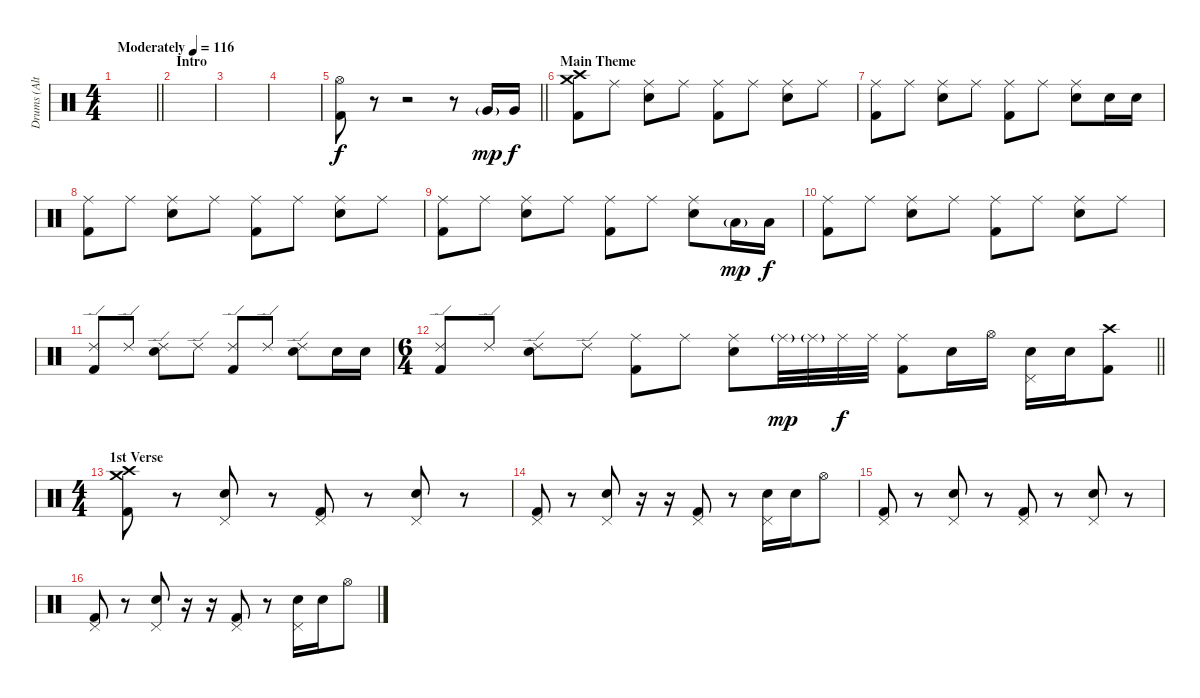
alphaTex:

\track ("Drums (Alternate - NOT ON MASTER)" "Drums (Alt") {mute instrument percussion}
\staff {score}
\articulation defaults
\ts (4 4)
\tempo (116 "Moderately")
\clef neutral
\barLineRight lightlight
\ks c
|
\section ("" "Intro")
|
|
|
\barLineRight lightlight
("Hi-Hat (open)" "Kick (hit) 2").8 r.8 r.2 r.8 "Very Low Tom (hit)"{g}.16{dy mp} "Very Low Tom (hit)".16{dy f} |
\section ("" "Main Theme")
("Crash medium (hit)" "Crash high (hit)" "Kick (hit) 2").8 "Ride (middle)".8 ("Ride (middle)" "Snare (hit) 2").8 "Ride (middle)".8 ("Ride (middle)" "Kick (hit) 2").8 "Ride (middle)".8 ("Ride (middle)" "Snare (hit) 2").8 "Ride (middle)".8 |
("Ride (middle)" "Kick (hit) 2").8 "Ride (middle)".8 ("Ride (middle)" "Snare (hit) 2").8 "Ride (middle)".8 ("Ride (middle)" "Kick (hit) 2").8 "Ride (middle)".8 ("Ride (middle)" "Snare (hit) 2").8 "Snare (hit) 2".16 "Snare (hit) 2".16 |
("Ride (middle)" "Kick (hit) 2").8 "Ride (middle)".8 ("Ride (middle)" "Snare (hit) 2").8 "Ride (middle)".8 ("Ride (middle)" "Kick (hit) 2").8 "Ride (middle)".8 ("Ride (middle)" "Snare (hit) 2").8 "Ride (middle)".8 |
("Ride (middle)" "Kick (hit) 2").8 "Ride (middle)".8 ("Ride (middle)" "Snare (hit) 2").8 "Ride (middle)".8 ("Ride (middle)" "Kick (hit) 2").8 "Ride (middle)".8 ("Ride (middle)" "Snare (hit) 2").8 "Low Floor Tom (hit)"{g}.16{dy mp} "Low Floor Tom (hit)".16{dy f} |
("Ride (middle)" "Kick (hit) 2").8 "Ride (middle)".8 ("Ride (middle)" "Snare (hit) 2").8 "Ride (middle)".8 ("Ride (middle)" "Kick (hit) 2").8 "Ride (middle)".8 ("Ride (middle)" "Snare (hit) 2").8 "Ride (middle)".8 |
("Ride (edge) 2" "Kick (hit) 2").8 "Ride (edge) 2".8 ("Ride (edge) 2" "Snare (hit) 2").8 "Ride (edge) 2".8 ("Ride (edge) 2" "Kick (hit) 2").8 "Ride (edge) 2".8 ("Ride (edge) 2" "Snare (hit) 2").8 "Snare (hit) 2".16 "Snare (hit) 2".16 |
\ts (6 4)
\barLineRight lightlight
("Ride (edge) 2" "Kick (hit) 2").8 "Ride (edge) 2".8 ("Ride (edge) 2" "Snare (hit) 2").8 "Ride (edge) 2".8 ("Ride (middle)" "Kick (hit) 2").8 "Ride (middle)".8 ("Ride (middle)" "Snare (hit) 2").8 "Ride (middle)"{g}.32{dy mp} "Ride (middle)"{g}.32 "Ride (middle)".32{dy f} "Ride (middle)".32 ("Ride (middle)" "Kick (hit) 2").8 "Snare (hit) 2".16 "Hi-Hat (open)".16 ("Pedal Hi-Hat (hit)" "Snare (hit) 2").16 "Snare (hit) 2".16 ("Crash high (hit)" "Kick (hit) 2").8 |
\ts (4 4)
\section ("" "1st Verse")
("Crash medium (hit)" "Crash high (hit)" "Kick (hit) 2").8 r.8 ("Snare (hit) 2" "Pedal Hi-Hat (hit)").8 r.8 ("Pedal Hi-Hat (hit)" "Kick (hit) 2").8 r.8 ("Snare (hit) 2" "Pedal Hi-Hat (hit)").8 r.8 |
("Pedal Hi-Hat (hit)" "Kick (hit) 2").8 r.8 ("Snare (hit) 2" "Pedal Hi-Hat (hit)").8 r.16 r.16 ("Pedal Hi-Hat (hit)" "Kick (hit) 2").8 r.8 ("Snare (hit) 2" "Pedal Hi-Hat (hit)").16 "Snare (hit) 2".16 "Hi-Hat (open)".8 |
("Pedal Hi-Hat (hit)" "Kick (hit) 2").8 r.8 ("Snare (hit) 2" "Pedal Hi-Hat (hit)").8 r.8 ("Pedal Hi-Hat (hit)" "Kick (hit) 2").8 r.8 ("Snare (hit) 2" "Pedal Hi-Hat (hit)").8 r.8 |
("Pedal Hi-Hat (hit)" "Kick (hit) 2").8 r.8 ("Snare (hit) 2" "Pedal Hi-Hat (hit)").8 r.16 r.16 ("Pedal Hi-Hat (hit)" "Kick (hit) 2").8 r.8 ("Snare (hit) 2" "Pedal Hi-Hat (hit)").16 "Snare (hit) 2".16 "Hi-Hat (open)".8
